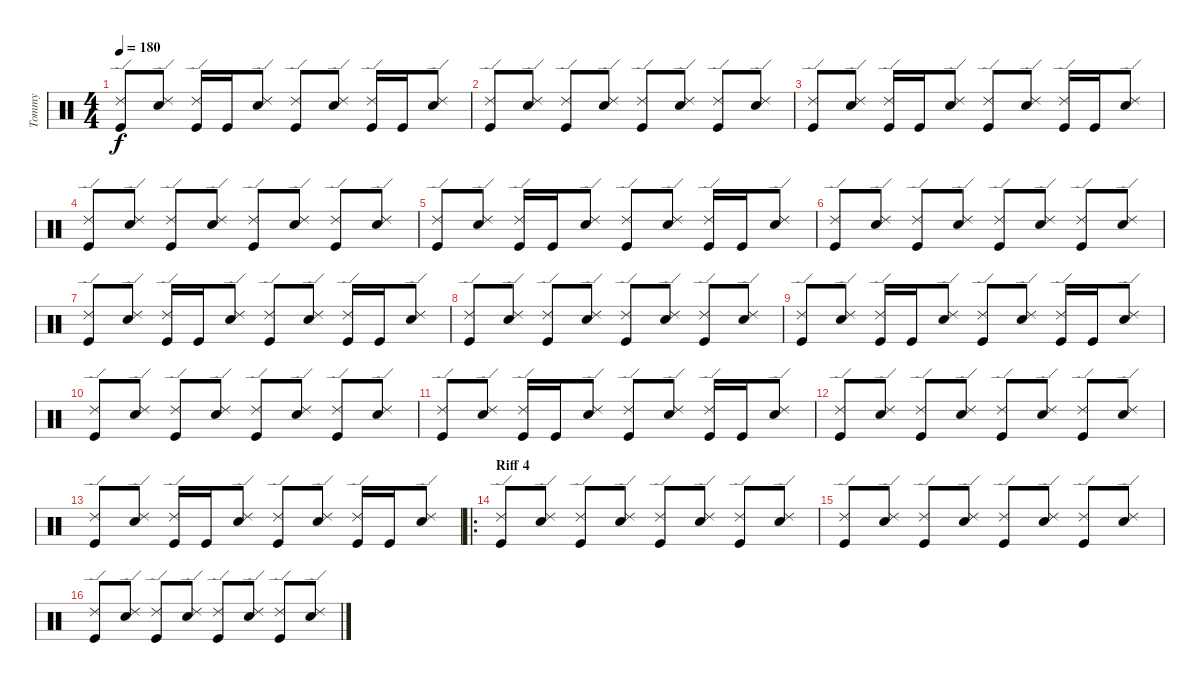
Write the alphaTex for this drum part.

\track ("Tommy" "Tommy") {instrument percussion}
\staff {score}
\articulation defaults
\ts (4 4)
\tempo 180
\clef neutral
\ks c
("Ride (edge) 2" "Kick (hit)").8{dy f} ("Ride (edge) 2" "Electric Snare (hit)").8 ("Ride (edge) 2" "Kick (hit)").16 "Kick (hit)".16 ("Ride (edge) 2" "Electric Snare (hit)").8 ("Ride (edge) 2" "Kick (hit)").8 ("Ride (edge) 2" "Electric Snare (hit)").8 ("Ride (edge) 2" "Kick (hit)").16 "Kick (hit)".16 ("Ride (edge) 2" "Electric Snare (hit)").8 |
("Ride (edge) 2" "Kick (hit)").8 ("Ride (edge) 2" "Electric Snare (hit)").8 ("Ride (edge) 2" "Kick (hit)").8 ("Ride (edge) 2" "Electric Snare (hit)").8 ("Ride (edge) 2" "Kick (hit)").8 ("Ride (edge) 2" "Electric Snare (hit)").8 ("Ride (edge) 2" "Kick (hit)").8 ("Ride (edge) 2" "Electric Snare (hit)").8 |
("Ride (edge) 2" "Kick (hit)").8 ("Ride (edge) 2" "Electric Snare (hit)").8 ("Ride (edge) 2" "Kick (hit)").16 "Kick (hit)".16 ("Ride (edge) 2" "Electric Snare (hit)").8 ("Ride (edge) 2" "Kick (hit)").8 ("Ride (edge) 2" "Electric Snare (hit)").8 ("Ride (edge) 2" "Kick (hit)").16 "Kick (hit)".16 ("Ride (edge) 2" "Electric Snare (hit)").8 |
("Ride (edge) 2" "Kick (hit)").8 ("Ride (edge) 2" "Electric Snare (hit)").8 ("Ride (edge) 2" "Kick (hit)").8 ("Ride (edge) 2" "Electric Snare (hit)").8 ("Ride (edge) 2" "Kick (hit)").8 ("Ride (edge) 2" "Electric Snare (hit)").8 ("Ride (edge) 2" "Kick (hit)").8 ("Ride (edge) 2" "Electric Snare (hit)").8 |
("Ride (edge) 2" "Kick (hit)").8 ("Ride (edge) 2" "Electric Snare (hit)").8 ("Ride (edge) 2" "Kick (hit)").16 "Kick (hit)".16 ("Ride (edge) 2" "Electric Snare (hit)").8 ("Ride (edge) 2" "Kick (hit)").8 ("Ride (edge) 2" "Electric Snare (hit)").8 ("Ride (edge) 2" "Kick (hit)").16 "Kick (hit)".16 ("Ride (edge) 2" "Electric Snare (hit)").8 |
("Ride (edge) 2" "Kick (hit)").8 ("Ride (edge) 2" "Electric Snare (hit)").8 ("Ride (edge) 2" "Kick (hit)").8 ("Ride (edge) 2" "Electric Snare (hit)").8 ("Ride (edge) 2" "Kick (hit)").8 ("Ride (edge) 2" "Electric Snare (hit)").8 ("Ride (edge) 2" "Kick (hit)").8 ("Ride (edge) 2" "Electric Snare (hit)").8 |
("Ride (edge) 2" "Kick (hit)").8 ("Ride (edge) 2" "Electric Snare (hit)").8 ("Ride (edge) 2" "Kick (hit)").16 "Kick (hit)".16 ("Ride (edge) 2" "Electric Snare (hit)").8 ("Ride (edge) 2" "Kick (hit)").8 ("Ride (edge) 2" "Electric Snare (hit)").8 ("Ride (edge) 2" "Kick (hit)").16 "Kick (hit)".16 ("Ride (edge) 2" "Electric Snare (hit)").8 |
("Ride (edge) 2" "Kick (hit)").8 ("Ride (edge) 2" "Electric Snare (hit)").8 ("Ride (edge) 2" "Kick (hit)").8 ("Ride (edge) 2" "Electric Snare (hit)").8 ("Ride (edge) 2" "Kick (hit)").8 ("Ride (edge) 2" "Electric Snare (hit)").8 ("Ride (edge) 2" "Kick (hit)").8 ("Ride (edge) 2" "Electric Snare (hit)").8 |
("Ride (edge) 2" "Kick (hit)").8 ("Ride (edge) 2" "Electric Snare (hit)").8 ("Ride (edge) 2" "Kick (hit)").16 "Kick (hit)".16 ("Ride (edge) 2" "Electric Snare (hit)").8 ("Ride (edge) 2" "Kick (hit)").8 ("Ride (edge) 2" "Electric Snare (hit)").8 ("Ride (edge) 2" "Kick (hit)").16 "Kick (hit)".16 ("Ride (edge) 2" "Electric Snare (hit)").8 |
("Ride (edge) 2" "Kick (hit)").8 ("Ride (edge) 2" "Electric Snare (hit)").8 ("Ride (edge) 2" "Kick (hit)").8 ("Ride (edge) 2" "Electric Snare (hit)").8 ("Ride (edge) 2" "Kick (hit)").8 ("Ride (edge) 2" "Electric Snare (hit)").8 ("Ride (edge) 2" "Kick (hit)").8 ("Ride (edge) 2" "Electric Snare (hit)").8 |
("Ride (edge) 2" "Kick (hit)").8 ("Ride (edge) 2" "Electric Snare (hit)").8 ("Ride (edge) 2" "Kick (hit)").16 "Kick (hit)".16 ("Ride (edge) 2" "Electric Snare (hit)").8 ("Ride (edge) 2" "Kick (hit)").8 ("Ride (edge) 2" "Electric Snare (hit)").8 ("Ride (edge) 2" "Kick (hit)").16 "Kick (hit)".16 ("Ride (edge) 2" "Electric Snare (hit)").8 |
("Ride (edge) 2" "Kick (hit)").8 ("Ride (edge) 2" "Electric Snare (hit)").8 ("Ride (edge) 2" "Kick (hit)").8 ("Ride (edge) 2" "Electric Snare (hit)").8 ("Ride (edge) 2" "Kick (hit)").8 ("Ride (edge) 2" "Electric Snare (hit)").8 ("Ride (edge) 2" "Kick (hit)").8 ("Ride (edge) 2" "Electric Snare (hit)").8 |
("Ride (edge) 2" "Kick (hit)").8 ("Ride (edge) 2" "Electric Snare (hit)").8 ("Ride (edge) 2" "Kick (hit)").16 "Kick (hit)".16 ("Ride (edge) 2" "Electric Snare (hit)").8 ("Ride (edge) 2" "Kick (hit)").8 ("Ride (edge) 2" "Electric Snare (hit)").8 ("Ride (edge) 2" "Kick (hit)").16 "Kick (hit)".16 ("Ride (edge) 2" "Electric Snare (hit)").8 |
\ro
\section ("" "Riff 4")
("Ride (edge) 2" "Kick (hit)").8 ("Ride (edge) 2" "Electric Snare (hit)").8 ("Ride (edge) 2" "Kick (hit)").8 ("Ride (edge) 2" "Electric Snare (hit)").8 ("Ride (edge) 2" "Kick (hit)").8 ("Ride (edge) 2" "Electric Snare (hit)").8 ("Ride (edge) 2" "Kick (hit)").8 ("Ride (edge) 2" "Electric Snare (hit)").8 |
("Ride (edge) 2" "Kick (hit)").8 ("Ride (edge) 2" "Electric Snare (hit)").8 ("Ride (edge) 2" "Kick (hit)").8 ("Ride (edge) 2" "Electric Snare (hit)").8 ("Ride (edge) 2" "Kick (hit)").8 ("Ride (edge) 2" "Electric Snare (hit)").8 ("Ride (edge) 2" "Kick (hit)").8 ("Ride (edge) 2" "Electric Snare (hit)").8 |
("Ride (edge) 2" "Kick (hit)").8 ("Ride (edge) 2" "Electric Snare (hit)").8 ("Ride (edge) 2" "Kick (hit)").8 ("Ride (edge) 2" "Electric Snare (hit)").8 ("Ride (edge) 2" "Kick (hit)").8 ("Ride (edge) 2" "Electric Snare (hit)").8 ("Ride (edge) 2" "Kick (hit)").8 ("Ride (edge) 2" "Electric Snare (hit)").8
